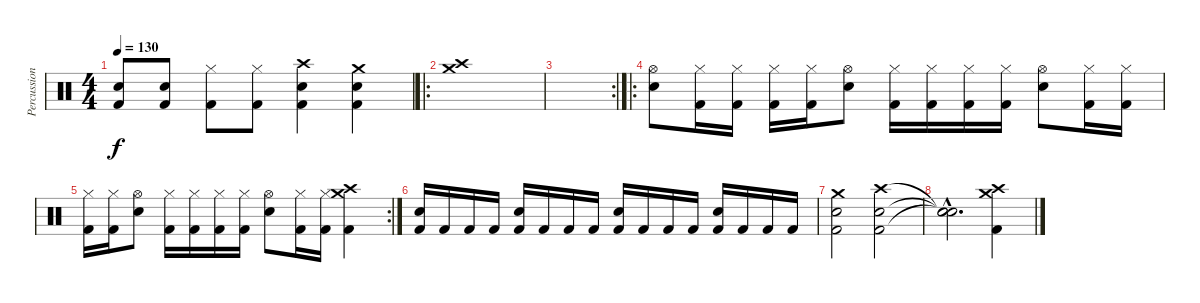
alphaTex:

\track ("Percussioni" "Percussion") {instrument percussion}
\staff {score}
\articulation defaults
\ts (4 4)
\tempo 130
\clef neutral
\ks c
("Electric Snare (hit)" "Kick (hit) 2").8{dy f} ("Electric Snare (hit)" "Kick (hit) 2").8 ("Kick (hit) 2" "Hi-Hat (closed)").8 ("Kick (hit) 2" "Hi-Hat (closed)").8 ("Crash high (hit)" "Electric Snare (hit)" "Kick (hit) 2").4 ("Crash medium (hit)" "Electric Snare (hit)" "Kick (hit) 2").4 |
\ro
("Crash medium (hit)" "Crash high (hit)").1 |
\rc 2
|
\ro
("Hi-Hat (open)" "Electric Snare (hit)").8 ("Kick (hit) 2" "Hi-Hat (closed)").16 ("Kick (hit) 2" "Hi-Hat (closed)").16 ("Kick (hit) 2" "Hi-Hat (closed)").16 ("Kick (hit) 2" "Hi-Hat (closed)").16 ("Hi-Hat (open)" "Electric Snare (hit)").8 ("Kick (hit) 2" "Hi-Hat (closed)").16 ("Kick (hit) 2" "Hi-Hat (closed)").16 ("Kick (hit) 2" "Hi-Hat (closed)").16 ("Kick (hit) 2" "Hi-Hat (closed)").16 ("Hi-Hat (open)" "Electric Snare (hit)").8 ("Kick (hit) 2" "Hi-Hat (closed)").16 ("Kick (hit) 2" "Hi-Hat (closed)").16 |
\rc 2
("Kick (hit) 2" "Hi-Hat (closed)").16 ("Kick (hit) 2" "Hi-Hat (closed)").16 ("Hi-Hat (open)" "Electric Snare (hit)").8 ("Kick (hit) 2" "Hi-Hat (closed)").16 ("Kick (hit) 2" "Hi-Hat (closed)").16 ("Kick (hit) 2" "Hi-Hat (closed)").16 ("Kick (hit) 2" "Hi-Hat (closed)").16 ("Hi-Hat (open)" "Electric Snare (hit)").8 ("Kick (hit) 2" "Hi-Hat (closed)").16 ("Kick (hit) 2" "Hi-Hat (closed)").16 ("Crash medium (hit)" "Crash high (hit)" "Kick (hit) 2").4 |
("Electric Snare (hit)" "Kick (hit) 2").16 "Kick (hit) 2".16 "Kick (hit) 2".16 "Kick (hit) 2".16 ("Electric Snare (hit)" "Kick (hit) 2").16 "Kick (hit) 2".16 "Kick (hit) 2".16 "Kick (hit) 2".16 ("Electric Snare (hit)" "Kick (hit) 2").16 "Kick (hit) 2".16 "Kick (hit) 2".16 "Kick (hit) 2".16 ("Electric Snare (hit)" "Kick (hit) 2").16 "Kick (hit) 2".16 "Kick (hit) 2".16 "Kick (hit) 2".16 |
("Crash medium (hit)" "Electric Snare (hit)" "Kick (hit) 2").2 ("Crash high (hit)" "Electric Snare (hit)" "Kick (hit) 2").2 |
("Snare (hit)"{hac t} "Snare (hit)"{hac t} "Snare (hit)"{hac t}).2{d} ("Crash medium (hit)" "Crash high (hit)" "Kick (hit) 2").4
